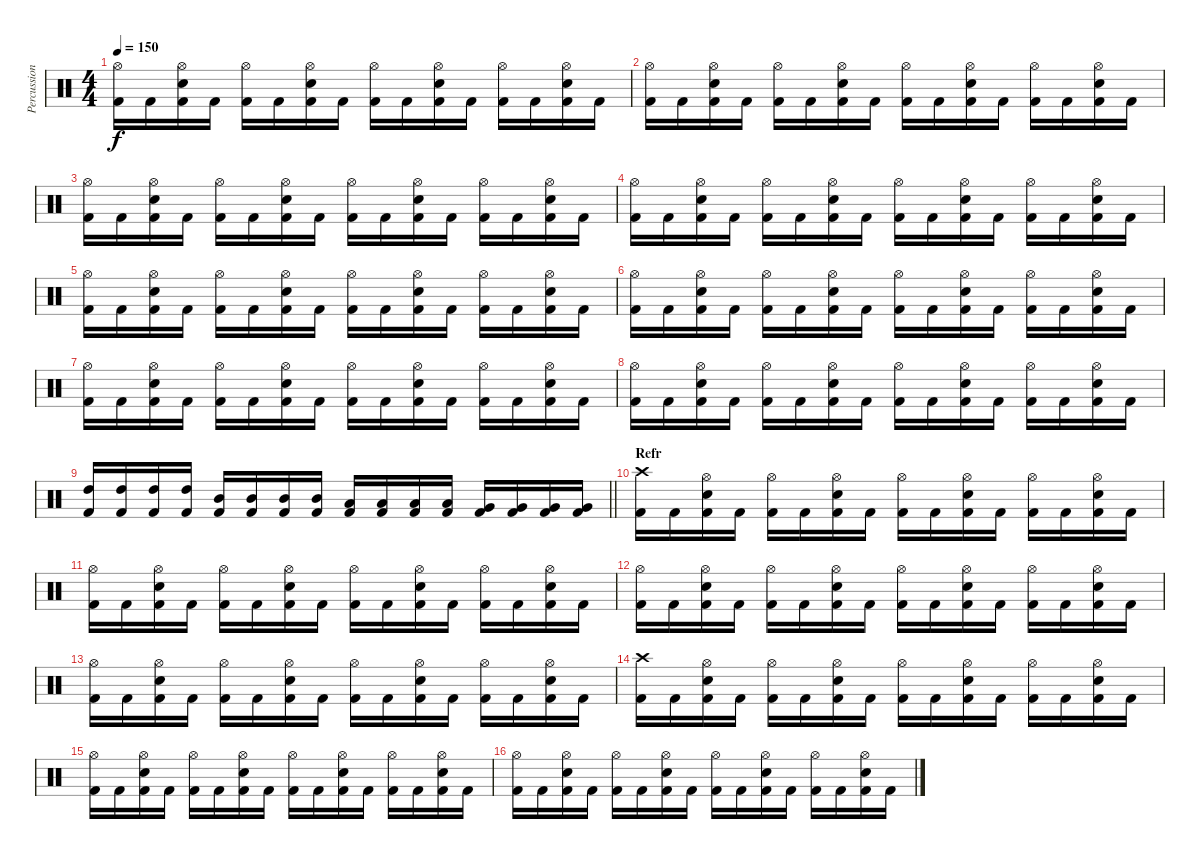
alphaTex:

\track ("Percussion" "Percussion") {instrument percussion}
\staff {score}
\articulation defaults
\ts (4 4)
\tempo 150
\clef neutral
\ks c
("Hi-Hat (open)" "Kick (hit) 2").16{dy f} "Kick (hit) 2".16 ("Hi-Hat (open)" "Snare (hit) 2" "Kick (hit) 2").16 "Kick (hit) 2".16 ("Hi-Hat (open)" "Kick (hit) 2").16 "Kick (hit) 2".16 ("Hi-Hat (open)" "Snare (hit) 2" "Kick (hit) 2").16 "Kick (hit) 2".16 ("Hi-Hat (open)" "Kick (hit) 2").16 "Kick (hit) 2".16 ("Hi-Hat (open)" "Snare (hit) 2" "Kick (hit) 2").16 "Kick (hit) 2".16 ("Hi-Hat (open)" "Kick (hit) 2").16 "Kick (hit) 2".16 ("Hi-Hat (open)" "Snare (hit) 2" "Kick (hit) 2").16 "Kick (hit) 2".16 |
("Hi-Hat (open)" "Kick (hit) 2").16 "Kick (hit) 2".16 ("Hi-Hat (open)" "Snare (hit) 2" "Kick (hit) 2").16 "Kick (hit) 2".16 ("Hi-Hat (open)" "Kick (hit) 2").16 "Kick (hit) 2".16 ("Hi-Hat (open)" "Snare (hit) 2" "Kick (hit) 2").16 "Kick (hit) 2".16 ("Hi-Hat (open)" "Kick (hit) 2").16 "Kick (hit) 2".16 ("Hi-Hat (open)" "Snare (hit) 2" "Kick (hit) 2").16 "Kick (hit) 2".16 ("Hi-Hat (open)" "Kick (hit) 2").16 "Kick (hit) 2".16 ("Hi-Hat (open)" "Snare (hit) 2" "Kick (hit) 2").16 "Kick (hit) 2".16 |
("Hi-Hat (open)" "Kick (hit) 2").16 "Kick (hit) 2".16 ("Hi-Hat (open)" "Snare (hit) 2" "Kick (hit) 2").16 "Kick (hit) 2".16 ("Hi-Hat (open)" "Kick (hit) 2").16 "Kick (hit) 2".16 ("Hi-Hat (open)" "Snare (hit) 2" "Kick (hit) 2").16 "Kick (hit) 2".16 ("Hi-Hat (open)" "Kick (hit) 2").16 "Kick (hit) 2".16 ("Hi-Hat (open)" "Snare (hit) 2" "Kick (hit) 2").16 "Kick (hit) 2".16 ("Hi-Hat (open)" "Kick (hit) 2").16 "Kick (hit) 2".16 ("Hi-Hat (open)" "Snare (hit) 2" "Kick (hit) 2").16 "Kick (hit) 2".16 |
("Hi-Hat (open)" "Kick (hit) 2").16 "Kick (hit) 2".16 ("Hi-Hat (open)" "Snare (hit) 2" "Kick (hit) 2").16 "Kick (hit) 2".16 ("Hi-Hat (open)" "Kick (hit) 2").16 "Kick (hit) 2".16 ("Hi-Hat (open)" "Snare (hit) 2" "Kick (hit) 2").16 "Kick (hit) 2".16 ("Hi-Hat (open)" "Kick (hit) 2").16 "Kick (hit) 2".16 ("Hi-Hat (open)" "Snare (hit) 2" "Kick (hit) 2").16 "Kick (hit) 2".16 ("Hi-Hat (open)" "Kick (hit) 2").16 "Kick (hit) 2".16 ("Hi-Hat (open)" "Snare (hit) 2" "Kick (hit) 2").16 "Kick (hit) 2".16 |
("Hi-Hat (open)" "Kick (hit) 2").16 "Kick (hit) 2".16 ("Hi-Hat (open)" "Snare (hit) 2" "Kick (hit) 2").16 "Kick (hit) 2".16 ("Hi-Hat (open)" "Kick (hit) 2").16 "Kick (hit) 2".16 ("Hi-Hat (open)" "Snare (hit) 2" "Kick (hit) 2").16 "Kick (hit) 2".16 ("Hi-Hat (open)" "Kick (hit) 2").16 "Kick (hit) 2".16 ("Hi-Hat (open)" "Snare (hit) 2" "Kick (hit) 2").16 "Kick (hit) 2".16 ("Hi-Hat (open)" "Kick (hit) 2").16 "Kick (hit) 2".16 ("Hi-Hat (open)" "Snare (hit) 2" "Kick (hit) 2").16 "Kick (hit) 2".16 |
("Hi-Hat (open)" "Kick (hit) 2").16 "Kick (hit) 2".16 ("Hi-Hat (open)" "Snare (hit) 2" "Kick (hit) 2").16 "Kick (hit) 2".16 ("Hi-Hat (open)" "Kick (hit) 2").16 "Kick (hit) 2".16 ("Hi-Hat (open)" "Snare (hit) 2" "Kick (hit) 2").16 "Kick (hit) 2".16 ("Hi-Hat (open)" "Kick (hit) 2").16 "Kick (hit) 2".16 ("Hi-Hat (open)" "Snare (hit) 2" "Kick (hit) 2").16 "Kick (hit) 2".16 ("Hi-Hat (open)" "Kick (hit) 2").16 "Kick (hit) 2".16 ("Hi-Hat (open)" "Snare (hit) 2" "Kick (hit) 2").16 "Kick (hit) 2".16 |
("Hi-Hat (open)" "Kick (hit) 2").16 "Kick (hit) 2".16 ("Hi-Hat (open)" "Snare (hit) 2" "Kick (hit) 2").16 "Kick (hit) 2".16 ("Hi-Hat (open)" "Kick (hit) 2").16 "Kick (hit) 2".16 ("Hi-Hat (open)" "Snare (hit) 2" "Kick (hit) 2").16 "Kick (hit) 2".16 ("Hi-Hat (open)" "Kick (hit) 2").16 "Kick (hit) 2".16 ("Hi-Hat (open)" "Snare (hit) 2" "Kick (hit) 2").16 "Kick (hit) 2".16 ("Hi-Hat (open)" "Kick (hit) 2").16 "Kick (hit) 2".16 ("Hi-Hat (open)" "Snare (hit) 2" "Kick (hit) 2").16 "Kick (hit) 2".16 |
("Hi-Hat (open)" "Kick (hit) 2").16 "Kick (hit) 2".16 ("Hi-Hat (open)" "Snare (hit) 2" "Kick (hit) 2").16 "Kick (hit) 2".16 ("Hi-Hat (open)" "Kick (hit) 2").16 "Kick (hit) 2".16 ("Hi-Hat (open)" "Snare (hit) 2" "Kick (hit) 2").16 "Kick (hit) 2".16 ("Hi-Hat (open)" "Kick (hit) 2").16 "Kick (hit) 2".16 ("Hi-Hat (open)" "Snare (hit) 2" "Kick (hit) 2").16 "Kick (hit) 2".16 ("Hi-Hat (open)" "Kick (hit) 2").16 "Kick (hit) 2".16 ("Hi-Hat (open)" "Snare (hit) 2" "Kick (hit) 2").16 "Kick (hit) 2".16 |
\barLineRight lightlight
("High Tom (hit)" "Kick (hit) 2").16 ("High Tom (hit)" "Kick (hit) 2").16 ("High Tom (hit)" "Kick (hit) 2").16 ("High Tom (hit)" "Kick (hit) 2").16 ("Mid Tom (hit)" "Kick (hit) 2").16 ("Mid Tom (hit)" "Kick (hit) 2").16 ("Mid Tom (hit)" "Kick (hit) 2").16 ("Mid Tom (hit)" "Kick (hit) 2").16 ("Low Tom (hit)" "Kick (hit) 2").16 ("Low Tom (hit)" "Kick (hit) 2").16 ("Low Tom (hit)" "Kick (hit) 2").16 ("Low Tom (hit)" "Kick (hit) 2").16 ("Very Low Tom (hit)" "Kick (hit) 2").16 ("Very Low Tom (hit)" "Kick (hit) 2").16 ("Very Low Tom (hit)" "Kick (hit) 2").16 ("Very Low Tom (hit)" "Kick (hit) 2").16 |
\section ("" "Refr")
("Crash high (hit)" "Kick (hit) 2").16 "Kick (hit) 2".16 ("Hi-Hat (open)" "Snare (hit) 2" "Kick (hit) 2").16 "Kick (hit) 2".16 ("Hi-Hat (open)" "Kick (hit) 2").16 "Kick (hit) 2".16 ("Hi-Hat (open)" "Snare (hit) 2" "Kick (hit) 2").16 "Kick (hit) 2".16 ("Hi-Hat (open)" "Kick (hit) 2").16 "Kick (hit) 2".16 ("Hi-Hat (open)" "Snare (hit) 2" "Kick (hit) 2").16 "Kick (hit) 2".16 ("Hi-Hat (open)" "Kick (hit) 2").16 "Kick (hit) 2".16 ("Hi-Hat (open)" "Snare (hit) 2" "Kick (hit) 2").16 "Kick (hit) 2".16 |
("Hi-Hat (open)" "Kick (hit) 2").16 "Kick (hit) 2".16 ("Hi-Hat (open)" "Snare (hit) 2" "Kick (hit) 2").16 "Kick (hit) 2".16 ("Hi-Hat (open)" "Kick (hit) 2").16 "Kick (hit) 2".16 ("Hi-Hat (open)" "Snare (hit) 2" "Kick (hit) 2").16 "Kick (hit) 2".16 ("Hi-Hat (open)" "Kick (hit) 2").16 "Kick (hit) 2".16 ("Hi-Hat (open)" "Snare (hit) 2" "Kick (hit) 2").16 "Kick (hit) 2".16 ("Hi-Hat (open)" "Kick (hit) 2").16 "Kick (hit) 2".16 ("Hi-Hat (open)" "Snare (hit) 2" "Kick (hit) 2").16 "Kick (hit) 2".16 |
("Hi-Hat (open)" "Kick (hit) 2").16 "Kick (hit) 2".16 ("Hi-Hat (open)" "Snare (hit) 2" "Kick (hit) 2").16 "Kick (hit) 2".16 ("Hi-Hat (open)" "Kick (hit) 2").16 "Kick (hit) 2".16 ("Hi-Hat (open)" "Snare (hit) 2" "Kick (hit) 2").16 "Kick (hit) 2".16 ("Hi-Hat (open)" "Kick (hit) 2").16 "Kick (hit) 2".16 ("Hi-Hat (open)" "Snare (hit) 2" "Kick (hit) 2").16 "Kick (hit) 2".16 ("Hi-Hat (open)" "Kick (hit) 2").16 "Kick (hit) 2".16 ("Hi-Hat (open)" "Snare (hit) 2" "Kick (hit) 2").16 "Kick (hit) 2".16 |
("Hi-Hat (open)" "Kick (hit) 2").16 "Kick (hit) 2".16 ("Hi-Hat (open)" "Snare (hit) 2" "Kick (hit) 2").16 "Kick (hit) 2".16 ("Hi-Hat (open)" "Kick (hit) 2").16 "Kick (hit) 2".16 ("Hi-Hat (open)" "Snare (hit) 2" "Kick (hit) 2").16 "Kick (hit) 2".16 ("Hi-Hat (open)" "Kick (hit) 2").16 "Kick (hit) 2".16 ("Hi-Hat (open)" "Snare (hit) 2" "Kick (hit) 2").16 "Kick (hit) 2".16 ("Hi-Hat (open)" "Kick (hit) 2").16 "Kick (hit) 2".16 ("Hi-Hat (open)" "Snare (hit) 2" "Kick (hit) 2").16 "Kick (hit) 2".16 |
("Crash high (hit)" "Kick (hit) 2").16 "Kick (hit) 2".16 ("Hi-Hat (open)" "Snare (hit) 2" "Kick (hit) 2").16 "Kick (hit) 2".16 ("Hi-Hat (open)" "Kick (hit) 2").16 "Kick (hit) 2".16 ("Hi-Hat (open)" "Snare (hit) 2" "Kick (hit) 2").16 "Kick (hit) 2".16 ("Hi-Hat (open)" "Kick (hit) 2").16 "Kick (hit) 2".16 ("Hi-Hat (open)" "Snare (hit) 2" "Kick (hit) 2").16 "Kick (hit) 2".16 ("Hi-Hat (open)" "Kick (hit) 2").16 "Kick (hit) 2".16 ("Hi-Hat (open)" "Snare (hit) 2" "Kick (hit) 2").16 "Kick (hit) 2".16 |
("Hi-Hat (open)" "Kick (hit) 2").16 "Kick (hit) 2".16 ("Hi-Hat (open)" "Snare (hit) 2" "Kick (hit) 2").16 "Kick (hit) 2".16 ("Hi-Hat (open)" "Kick (hit) 2").16 "Kick (hit) 2".16 ("Hi-Hat (open)" "Snare (hit) 2" "Kick (hit) 2").16 "Kick (hit) 2".16 ("Hi-Hat (open)" "Kick (hit) 2").16 "Kick (hit) 2".16 ("Hi-Hat (open)" "Snare (hit) 2" "Kick (hit) 2").16 "Kick (hit) 2".16 ("Hi-Hat (open)" "Kick (hit) 2").16 "Kick (hit) 2".16 ("Hi-Hat (open)" "Snare (hit) 2" "Kick (hit) 2").16 "Kick (hit) 2".16 |
("Hi-Hat (open)" "Kick (hit) 2").16 "Kick (hit) 2".16 ("Hi-Hat (open)" "Snare (hit) 2" "Kick (hit) 2").16 "Kick (hit) 2".16 ("Hi-Hat (open)" "Kick (hit) 2").16 "Kick (hit) 2".16 ("Hi-Hat (open)" "Snare (hit) 2" "Kick (hit) 2").16 "Kick (hit) 2".16 ("Hi-Hat (open)" "Kick (hit) 2").16 "Kick (hit) 2".16 ("Hi-Hat (open)" "Snare (hit) 2" "Kick (hit) 2").16 "Kick (hit) 2".16 ("Hi-Hat (open)" "Kick (hit) 2").16 "Kick (hit) 2".16 ("Hi-Hat (open)" "Snare (hit) 2" "Kick (hit) 2").16 "Kick (hit) 2".16
